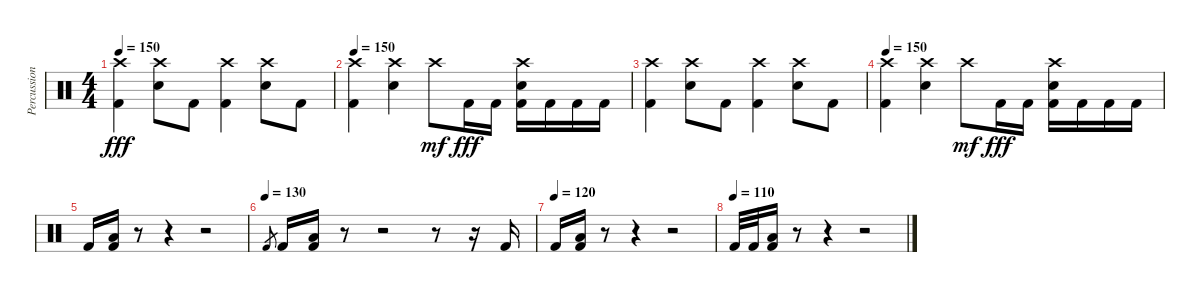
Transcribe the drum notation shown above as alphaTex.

\track ("Percussion" "Percussion") {instrument percussion}
\staff {score}
\articulation defaults
\ts (4 4)
\tempo 150
\clef neutral
\ks c
("Crash high (hit)" "Kick (hit) 2").4{dy fff} ("Crash high (hit)" "Electric Snare (hit)").8 "Kick (hit) 2".8 ("Crash high (hit)" "Kick (hit) 2").4 ("Crash high (hit)" "Electric Snare (hit)").8 "Kick (hit) 2".8 |
\tempo 150
("Crash high (hit)" "Kick (hit) 2").4 ("Crash high (hit)" "Electric Snare (hit)").4 "Crash high (hit)".8{dy mf} "Kick (hit) 2".16{dy fff} "Kick (hit) 2".16 ("Crash high (hit)" "Electric Snare (hit)" "Kick (hit) 2").16 "Kick (hit) 2".16 "Kick (hit) 2".16 "Kick (hit) 2".16 |
("Crash high (hit)" "Kick (hit) 2").4 ("Crash high (hit)" "Electric Snare (hit)").8 "Kick (hit) 2".8 ("Crash high (hit)" "Kick (hit) 2").4 ("Crash high (hit)" "Electric Snare (hit)").8 "Kick (hit) 2".8 |
\tempo 150
("Crash high (hit)" "Kick (hit) 2").4 ("Crash high (hit)" "Electric Snare (hit)").4 "Crash high (hit)".8{dy mf} "Kick (hit) 2".16{dy fff} "Kick (hit) 2".16 ("Crash high (hit)" "Electric Snare (hit)" "Kick (hit) 2").16 "Kick (hit) 2".16 "Kick (hit) 2".16 "Kick (hit) 2".16 |
"Kick (hit) 2".16 ("Low Floor Tom (hit)" "Kick (hit) 2").16 r.8 r.4 r.2 |
\tempo (130)
"Kick (hit) 2".8{gr} "Kick (hit) 2".16 ("Low Floor Tom (hit)" "Kick (hit) 2").16 r.8 r.2 r.8 r.16 "Kick (hit) 2".16 |
\tempo (120)
"Kick (hit) 2".16 ("Low Floor Tom (hit)" "Kick (hit) 2").16 r.8 r.4 r.2 |
\tempo (110)
"Kick (hit) 2".32 "Kick (hit) 2".32 ("Low Floor Tom (hit)" "Kick (hit) 2").16 r.8 r.4 r.2
